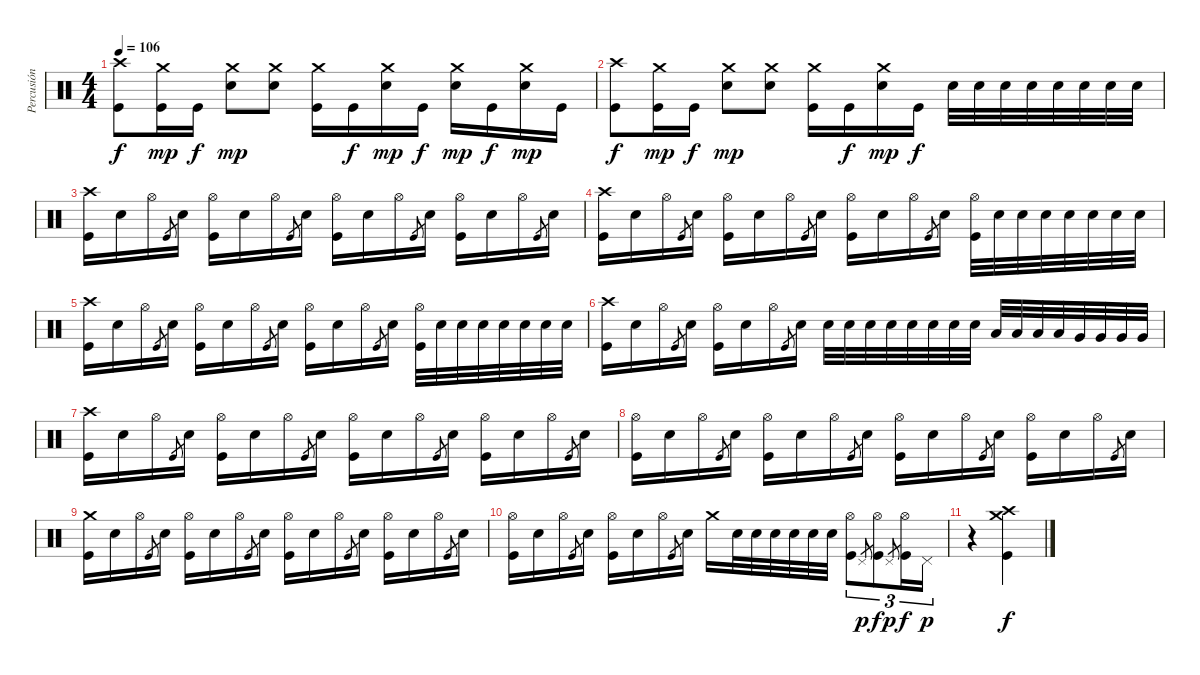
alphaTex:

\track ("Percusión" "Percusión") {instrument percussion}
\staff {score}
\articulation defaults
\ts (4 4)
\tempo 106
\clef neutral
\ks c
("Kick (hit)" "Crash high (hit)").8{dy f} ("Kick (hit)" "Crash medium (hit)").16{dy mp} "Kick (hit)".16{dy f} ("Snare (hit) 2" "Crash medium (hit)").8{dy mp} ("Snare (hit) 2" "Crash medium (hit)").8 ("Kick (hit)" "Crash medium (hit)").16 "Kick (hit)".16{dy f} ("Snare (hit) 2" "Crash medium (hit)").16{dy mp} "Kick (hit)".16{dy f} ("Snare (hit) 2" "Crash medium (hit)").16{dy mp} "Kick (hit)".16{dy f} ("Snare (hit) 2" "Crash medium (hit)").16{dy mp} "Kick (hit)".16 |
("Kick (hit)" "Crash high (hit)").8{dy f} ("Kick (hit)" "Crash medium (hit)").16{dy mp} "Kick (hit)".16{dy f} ("Snare (hit) 2" "Crash medium (hit)").8{dy mp} ("Snare (hit) 2" "Crash medium (hit)").8 ("Kick (hit)" "Crash medium (hit)").16 "Kick (hit)".16{dy f} ("Snare (hit) 2" "Crash medium (hit)").16{dy mp} "Kick (hit)".16{dy f} "Snare (hit) 2".32 "Snare (hit) 2".32 "Snare (hit) 2".32 "Snare (hit) 2".32 "Snare (hit) 2".32 "Snare (hit) 2".32 "Snare (hit) 2".32 "Snare (hit) 2".32 |
("Kick (hit)" "Crash high (hit)").16 "Snare (hit) 2".16 "Hi-Hat (open)".16 "Kick (hit)".8{gr} "Snare (hit) 2".16 ("Kick (hit)" "Hi-Hat (open)").16 "Snare (hit) 2".16 "Hi-Hat (open)".16 "Kick (hit)".8{gr} "Snare (hit) 2".16 ("Kick (hit)" "Hi-Hat (open)").16 "Snare (hit) 2".16 "Hi-Hat (open)".16 "Kick (hit)".8{gr} "Snare (hit) 2".16 ("Kick (hit)" "Hi-Hat (open)").16 "Snare (hit) 2".16 "Hi-Hat (open)".16 "Kick (hit)".8{gr} "Snare (hit) 2".16 |
("Kick (hit)" "Crash high (hit)").16 "Snare (hit) 2".16 "Hi-Hat (open)".16 "Kick (hit)".8{gr} "Snare (hit) 2".16 ("Kick (hit)" "Hi-Hat (open)").16 "Snare (hit) 2".16 "Hi-Hat (open)".16 "Kick (hit)".8{gr} "Snare (hit) 2".16 ("Kick (hit)" "Hi-Hat (open)").16 "Snare (hit) 2".16 "Hi-Hat (open)".16 "Kick (hit)".8{gr} "Snare (hit) 2".16 ("Kick (hit)" "Hi-Hat (open)").32 "Snare (hit) 2".32 "Snare (hit) 2".32 "Snare (hit) 2".32 "Snare (hit) 2".32 "Snare (hit) 2".32 "Snare (hit) 2".32 "Snare (hit) 2".32 |
("Kick (hit)" "Crash high (hit)").16 "Snare (hit) 2".16 "Hi-Hat (open)".16 "Kick (hit)".8{gr} "Snare (hit) 2".16 ("Kick (hit)" "Hi-Hat (open)").16 "Snare (hit) 2".16 "Hi-Hat (open)".16 "Kick (hit)".8{gr} "Snare (hit) 2".16 ("Kick (hit)" "Hi-Hat (open)").16 "Snare (hit) 2".16 "Hi-Hat (open)".16 "Kick (hit)".8{gr} "Snare (hit) 2".16 ("Kick (hit)" "Hi-Hat (open)").32 "Snare (hit) 2".32 "Snare (hit) 2".32 "Snare (hit) 2".32 "Snare (hit) 2".32 "Snare (hit) 2".32 "Snare (hit) 2".32 "Snare (hit) 2".32 |
("Kick (hit)" "Crash high (hit)").16 "Snare (hit) 2".16 "Hi-Hat (open)".16 "Kick (hit)".8{gr} "Snare (hit) 2".16 ("Kick (hit)" "Hi-Hat (open)").16 "Snare (hit) 2".16 "Hi-Hat (open)".16 "Kick (hit)".8{gr} "Snare (hit) 2".16 "Snare (hit) 2".32 "Snare (hit) 2".32 "Snare (hit) 2".32 "Snare (hit) 2".32 "Snare (hit) 2".32 "Snare (hit) 2".32 "Snare (hit) 2".32 "Snare (hit) 2".32 "Low Tom (hit)".32 "Low Tom (hit)".32 "Low Tom (hit)".32 "Low Tom (hit)".32 "Very Low Tom (hit)".32 "Very Low Tom (hit)".32 "Very Low Tom (hit)".32 "Very Low Tom (hit)".32 |
("Kick (hit)" "Crash high (hit)").16 "Snare (hit) 2".16 "Hi-Hat (open)".16 "Kick (hit)".8{gr} "Snare (hit) 2".16 ("Kick (hit)" "Hi-Hat (open)").16 "Snare (hit) 2".16 "Hi-Hat (open)".16 "Kick (hit)".8{gr} "Snare (hit) 2".16 ("Kick (hit)" "Hi-Hat (open)").16 "Snare (hit) 2".16 "Hi-Hat (open)".16 "Kick (hit)".8{gr} "Snare (hit) 2".16 ("Kick (hit)" "Hi-Hat (open)").16 "Snare (hit) 2".16 "Hi-Hat (open)".16 "Kick (hit)".8{gr} "Snare (hit) 2".16 |
("Kick (hit)" "Hi-Hat (open)").16 "Snare (hit) 2".16 "Hi-Hat (open)".16 "Kick (hit)".8{gr} "Snare (hit) 2".16 ("Kick (hit)" "Hi-Hat (open)").16 "Snare (hit) 2".16 "Hi-Hat (open)".16 "Kick (hit)".8{gr} "Snare (hit) 2".16 ("Kick (hit)" "Hi-Hat (open)").16 "Snare (hit) 2".16 "Hi-Hat (open)".16 "Kick (hit)".8{gr} "Snare (hit) 2".16 ("Kick (hit)" "Hi-Hat (open)").16 "Snare (hit) 2".16 "Hi-Hat (open)".16 "Kick (hit)".8{gr} "Snare (hit) 2".16 |
("Kick (hit)" "Crash medium (hit)").16 "Snare (hit) 2".16 "Hi-Hat (open)".16 "Kick (hit)".8{gr} "Snare (hit) 2".16 ("Kick (hit)" "Hi-Hat (open)").16 "Snare (hit) 2".16 "Hi-Hat (open)".16 "Kick (hit)".8{gr} "Snare (hit) 2".16 ("Kick (hit)" "Hi-Hat (open)").16 "Snare (hit) 2".16 "Hi-Hat (open)".16 "Kick (hit)".8{gr} "Snare (hit) 2".16 ("Kick (hit)" "Hi-Hat (open)").16 "Snare (hit) 2".16 "Hi-Hat (open)".16 "Kick (hit)".8{gr} "Snare (hit) 2".16 |
("Kick (hit)" "Hi-Hat (open)").16 "Snare (hit) 2".16 "Hi-Hat (open)".16 "Kick (hit)".8{gr} "Snare (hit) 2".16 ("Kick (hit)" "Hi-Hat (open)").16 "Snare (hit) 2".16 "Hi-Hat (open)".16 "Kick (hit)".8{gr} "Snare (hit) 2".16 "Crash medium (hit)".16 "Snare (hit) 2".32 "Snare (hit) 2".32 "Snare (hit) 2".32 "Snare (hit) 2".32 "Snare (hit) 2".32 "Snare (hit) 2".32 ("Kick (hit)" "Hi-Hat (open)").8{tu (3 2)} "Pedal Hi-Hat (hit)".8{gr dy p} ("Kick (hit)" "Hi-Hat (open)").8{tu (3 2) dy f} "Pedal Hi-Hat (hit)".8{gr dy p} ("Kick (hit)" "Hi-Hat (open)").16{tu (3 2) dy f} "Pedal Hi-Hat (hit)".16{tu (3 2) dy p} |
r.4 ("Kick (hit)" "Crash high (hit)" "Crash medium (hit)").4{dy f}
